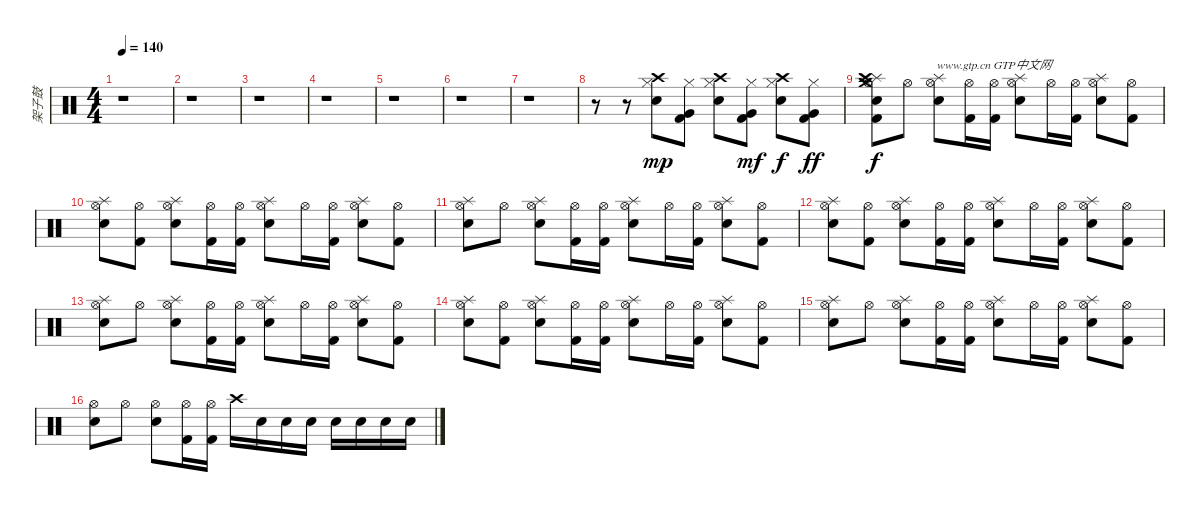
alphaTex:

\track ("架子鼓" "架子鼓") {instrument percussion}
\staff {score}
\articulation defaults
\ts (4 4)
\tempo 140
\clef neutral
\ks c
r.1{dy mp} |
r.1 |
r.1 |
r.1 |
r.1 |
r.1 |
r.1 |
r.8 r.8 ("Crash high (hit)" "Snare (hit) 2" "Hi-Hat (closed)").8 ("Hi-Hat (closed)" "Very Low Tom (hit)" "Kick (hit) 2").8 ("Crash high (hit)" "Snare (hit) 2" "Hi-Hat (closed)").8 ("Hi-Hat (closed)" "Very Low Tom (hit)" "Kick (hit) 2").8{dy mf} ("Crash high (hit)" "Snare (hit) 2" "Hi-Hat (closed)").8{dy f} ("Hi-Hat (closed)" "Very Low Tom (hit)" "Kick (hit) 2").8{dy ff} |
("Hi-Hat (open)" "Splash (hit)" "Snare (hit) 2" "Crash high (hit)" "Crash medium (hit)" "Kick (hit) 2").8{txt "                    www.gtp.cn GTP中文网" dy f} "Hi-Hat (open)".8 ("Hi-Hat (open)" "Splash (hit)" "Snare (hit) 2").8 ("Hi-Hat (open)" "Kick (hit) 2").16 ("Hi-Hat (open)" "Kick (hit) 2").16 ("Hi-Hat (open)" "Splash (hit)" "Snare (hit) 2").8 "Hi-Hat (open)".16 ("Hi-Hat (open)" "Kick (hit) 2").16 ("Hi-Hat (open)" "Splash (hit)" "Snare (hit) 2").8 ("Hi-Hat (open)" "Kick (hit) 2").8 |
("Hi-Hat (open)" "Splash (hit)" "Snare (hit) 2").8 ("Hi-Hat (open)" "Kick (hit) 2").8 ("Hi-Hat (open)" "Splash (hit)" "Snare (hit) 2").8 ("Hi-Hat (open)" "Kick (hit) 2").16 ("Hi-Hat (open)" "Kick (hit) 2").16 ("Hi-Hat (open)" "Splash (hit)" "Snare (hit) 2").8 "Hi-Hat (open)".16 ("Hi-Hat (open)" "Kick (hit) 2").16 ("Hi-Hat (open)" "Splash (hit)" "Snare (hit) 2").8 ("Hi-Hat (open)" "Kick (hit) 2").8 |
("Hi-Hat (open)" "Splash (hit)" "Snare (hit) 2").8 "Hi-Hat (open)".8 ("Hi-Hat (open)" "Splash (hit)" "Snare (hit) 2").8 ("Hi-Hat (open)" "Kick (hit) 2").16 ("Hi-Hat (open)" "Kick (hit) 2").16 ("Hi-Hat (open)" "Splash (hit)" "Snare (hit) 2").8 "Hi-Hat (open)".16 ("Hi-Hat (open)" "Kick (hit) 2").16 ("Hi-Hat (open)" "Splash (hit)" "Snare (hit) 2").8 ("Hi-Hat (open)" "Kick (hit) 2").8 |
("Hi-Hat (open)" "Splash (hit)" "Snare (hit) 2").8 ("Hi-Hat (open)" "Kick (hit) 2").8 ("Hi-Hat (open)" "Splash (hit)" "Snare (hit) 2").8 ("Hi-Hat (open)" "Kick (hit) 2").16 ("Hi-Hat (open)" "Kick (hit) 2").16 ("Hi-Hat (open)" "Splash (hit)" "Snare (hit) 2").8 "Hi-Hat (open)".16 ("Hi-Hat (open)" "Kick (hit) 2").16 ("Hi-Hat (open)" "Splash (hit)" "Snare (hit) 2").8 ("Hi-Hat (open)" "Kick (hit) 2").8 |
("Hi-Hat (open)" "Splash (hit)" "Snare (hit) 2").8 "Hi-Hat (open)".8 ("Hi-Hat (open)" "Splash (hit)" "Snare (hit) 2").8 ("Hi-Hat (open)" "Kick (hit) 2").16 ("Hi-Hat (open)" "Kick (hit) 2").16 ("Hi-Hat (open)" "Splash (hit)" "Snare (hit) 2").8 "Hi-Hat (open)".16 ("Hi-Hat (open)" "Kick (hit) 2").16 ("Hi-Hat (open)" "Splash (hit)" "Snare (hit) 2").8 ("Hi-Hat (open)" "Kick (hit) 2").8 |
("Hi-Hat (open)" "Splash (hit)" "Snare (hit) 2").8 ("Hi-Hat (open)" "Kick (hit) 2").8 ("Hi-Hat (open)" "Splash (hit)" "Snare (hit) 2").8 ("Hi-Hat (open)" "Kick (hit) 2").16 ("Hi-Hat (open)" "Kick (hit) 2").16 ("Hi-Hat (open)" "Splash (hit)" "Snare (hit) 2").8 "Hi-Hat (open)".16 ("Hi-Hat (open)" "Kick (hit) 2").16 ("Hi-Hat (open)" "Splash (hit)" "Snare (hit) 2").8 ("Hi-Hat (open)" "Kick (hit) 2").8 |
("Hi-Hat (open)" "Splash (hit)" "Snare (hit) 2").8 "Hi-Hat (open)".8 ("Hi-Hat (open)" "Splash (hit)" "Snare (hit) 2").8 ("Hi-Hat (open)" "Kick (hit) 2").16 ("Hi-Hat (open)" "Kick (hit) 2").16 ("Hi-Hat (open)" "Splash (hit)" "Snare (hit) 2").8 "Hi-Hat (open)".16 ("Hi-Hat (open)" "Kick (hit) 2").16 ("Hi-Hat (open)" "Splash (hit)" "Snare (hit) 2").8 ("Hi-Hat (open)" "Kick (hit) 2").8 |
("Hi-Hat (open)" "Snare (hit) 2").8 "Hi-Hat (open)".8 ("Hi-Hat (open)" "Snare (hit) 2").8 ("Hi-Hat (open)" "Kick (hit) 2").16 ("Hi-Hat (open)" "Kick (hit) 2").16 "Crash high (hit)".16 "Snare (hit) 2".16 "Snare (hit) 2".16 "Snare (hit) 2".16 "Snare (hit) 2".16 "Snare (hit) 2".16 "Snare (hit) 2".16 "Snare (hit) 2".16
